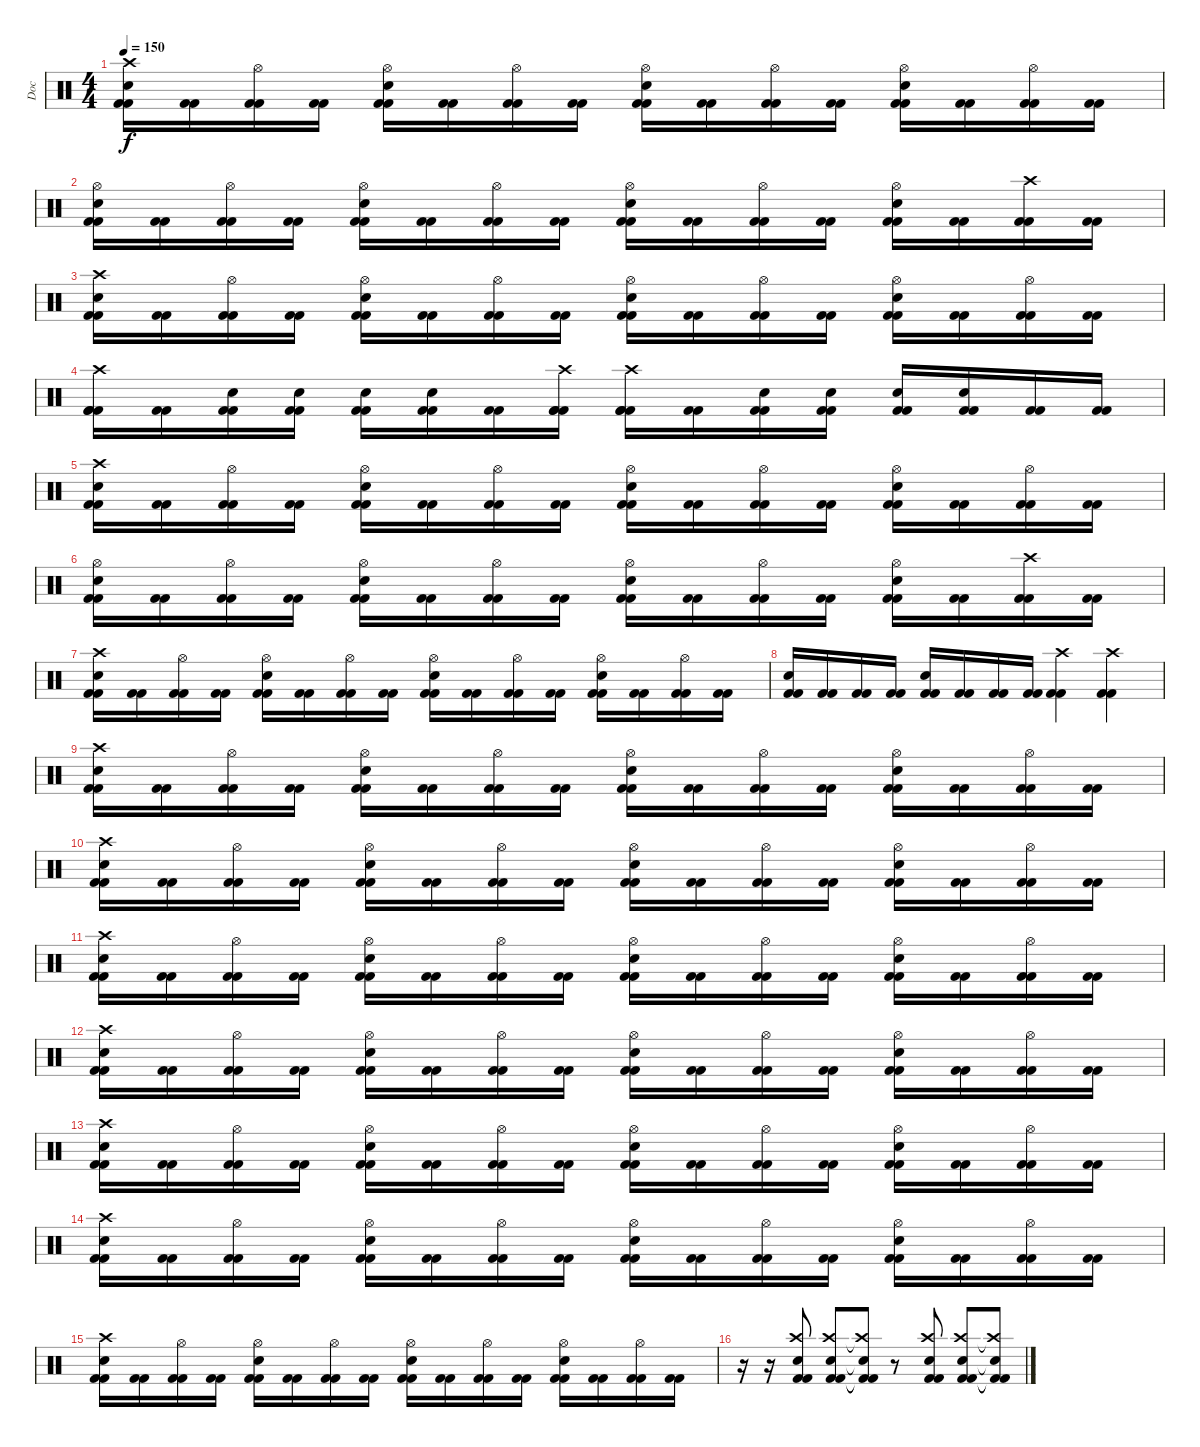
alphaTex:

\track ("Doc" "Doc") {instrument percussion}
\staff {score}
\articulation defaults
\ts (4 4)
\tempo 150
\clef neutral
\ks c
("Kick (hit) 2" "Crash high (hit)" "Electric Snare (hit)" "Kick (hit) 2").16{dy f} ("Kick (hit) 2" "Kick (hit) 2").16 ("Kick (hit) 2" "Hi-Hat (open)" "Kick (hit) 2").16 ("Kick (hit) 2" "Kick (hit) 2").16 ("Kick (hit) 2" "Hi-Hat (open)" "Electric Snare (hit)" "Kick (hit) 2").16 ("Kick (hit) 2" "Kick (hit) 2").16 ("Kick (hit) 2" "Hi-Hat (open)" "Kick (hit) 2").16 ("Kick (hit) 2" "Kick (hit) 2").16 ("Kick (hit) 2" "Hi-Hat (open)" "Electric Snare (hit)" "Kick (hit) 2").16 ("Kick (hit) 2" "Kick (hit) 2").16 ("Kick (hit) 2" "Hi-Hat (open)" "Kick (hit) 2").16 ("Kick (hit) 2" "Kick (hit) 2").16 ("Kick (hit) 2" "Hi-Hat (open)" "Electric Snare (hit)" "Kick (hit) 2").16 ("Kick (hit) 2" "Kick (hit) 2").16 ("Kick (hit) 2" "Hi-Hat (open)" "Kick (hit) 2").16 ("Kick (hit) 2" "Kick (hit) 2").16 |
("Kick (hit) 2" "Hi-Hat (open)" "Electric Snare (hit)" "Kick (hit) 2").16 ("Kick (hit) 2" "Kick (hit) 2").16 ("Kick (hit) 2" "Hi-Hat (open)" "Kick (hit) 2").16 ("Kick (hit) 2" "Kick (hit) 2").16 ("Kick (hit) 2" "Hi-Hat (open)" "Electric Snare (hit)" "Kick (hit) 2").16 ("Kick (hit) 2" "Kick (hit) 2").16 ("Kick (hit) 2" "Hi-Hat (open)" "Kick (hit) 2").16 ("Kick (hit) 2" "Kick (hit) 2").16 ("Kick (hit) 2" "Hi-Hat (open)" "Electric Snare (hit)" "Kick (hit) 2").16 ("Kick (hit) 2" "Kick (hit) 2").16 ("Kick (hit) 2" "Hi-Hat (open)" "Kick (hit) 2").16 ("Kick (hit) 2" "Kick (hit) 2").16 ("Kick (hit) 2" "Hi-Hat (open)" "Electric Snare (hit)" "Kick (hit) 2").16 ("Kick (hit) 2" "Kick (hit) 2").16 ("Kick (hit) 2" "Crash high (hit)" "Kick (hit) 2").16 ("Kick (hit) 2" "Kick (hit) 2").16 |
("Kick (hit) 2" "Crash high (hit)" "Electric Snare (hit)" "Kick (hit) 2").16 ("Kick (hit) 2" "Kick (hit) 2").16 ("Kick (hit) 2" "Hi-Hat (open)" "Kick (hit) 2").16 ("Kick (hit) 2" "Kick (hit) 2").16 ("Kick (hit) 2" "Hi-Hat (open)" "Electric Snare (hit)" "Kick (hit) 2").16 ("Kick (hit) 2" "Kick (hit) 2").16 ("Kick (hit) 2" "Hi-Hat (open)" "Kick (hit) 2").16 ("Kick (hit) 2" "Kick (hit) 2").16 ("Kick (hit) 2" "Hi-Hat (open)" "Electric Snare (hit)" "Kick (hit) 2").16 ("Kick (hit) 2" "Kick (hit) 2").16 ("Kick (hit) 2" "Hi-Hat (open)" "Kick (hit) 2").16 ("Kick (hit) 2" "Kick (hit) 2").16 ("Kick (hit) 2" "Hi-Hat (open)" "Electric Snare (hit)" "Kick (hit) 2").16 ("Kick (hit) 2" "Kick (hit) 2").16 ("Kick (hit) 2" "Hi-Hat (open)" "Kick (hit) 2").16 ("Kick (hit) 2" "Kick (hit) 2").16 |
("Kick (hit) 2" "Crash high (hit)" "Kick (hit) 2" "Kick (hit) 2").16 ("Kick (hit) 2" "Kick (hit) 2").16 ("Kick (hit) 2" "Electric Snare (hit)" "Kick (hit) 2").16 ("Kick (hit) 2" "Electric Snare (hit)" "Kick (hit) 2").16 ("Kick (hit) 2" "Electric Snare (hit)" "Kick (hit) 2").16 ("Kick (hit) 2" "Electric Snare (hit)" "Kick (hit) 2").16 ("Kick (hit) 2" "Kick (hit) 2").16 ("Kick (hit) 2" "Crash high (hit)" "Kick (hit) 2" "Kick (hit) 2").16 ("Kick (hit) 2" "Crash high (hit)" "Kick (hit) 2" "Kick (hit) 2").16 ("Kick (hit) 2" "Kick (hit) 2").16 ("Kick (hit) 2" "Electric Snare (hit)" "Kick (hit) 2").16 ("Kick (hit) 2" "Electric Snare (hit)" "Kick (hit) 2").16 ("Kick (hit) 2" "Electric Snare (hit)" "Kick (hit) 2").16 ("Kick (hit) 2" "Electric Snare (hit)" "Kick (hit) 2").16 ("Kick (hit) 2" "Kick (hit) 2").16 ("Kick (hit) 2" "Kick (hit) 2").16 |
("Kick (hit) 2" "Crash high (hit)" "Electric Snare (hit)" "Kick (hit) 2").16 ("Kick (hit) 2" "Kick (hit) 2").16 ("Kick (hit) 2" "Hi-Hat (open)" "Kick (hit) 2").16 ("Kick (hit) 2" "Kick (hit) 2").16 ("Kick (hit) 2" "Hi-Hat (open)" "Electric Snare (hit)" "Kick (hit) 2").16 ("Kick (hit) 2" "Kick (hit) 2").16 ("Kick (hit) 2" "Hi-Hat (open)" "Kick (hit) 2").16 ("Kick (hit) 2" "Kick (hit) 2").16 ("Kick (hit) 2" "Hi-Hat (open)" "Electric Snare (hit)" "Kick (hit) 2").16 ("Kick (hit) 2" "Kick (hit) 2").16 ("Kick (hit) 2" "Hi-Hat (open)" "Kick (hit) 2").16 ("Kick (hit) 2" "Kick (hit) 2").16 ("Kick (hit) 2" "Hi-Hat (open)" "Electric Snare (hit)" "Kick (hit) 2").16 ("Kick (hit) 2" "Kick (hit) 2").16 ("Kick (hit) 2" "Hi-Hat (open)" "Kick (hit) 2").16 ("Kick (hit) 2" "Kick (hit) 2").16 |
("Kick (hit) 2" "Hi-Hat (open)" "Electric Snare (hit)" "Kick (hit) 2").16 ("Kick (hit) 2" "Kick (hit) 2").16 ("Kick (hit) 2" "Hi-Hat (open)" "Kick (hit) 2").16 ("Kick (hit) 2" "Kick (hit) 2").16 ("Kick (hit) 2" "Hi-Hat (open)" "Electric Snare (hit)" "Kick (hit) 2").16 ("Kick (hit) 2" "Kick (hit) 2").16 ("Kick (hit) 2" "Hi-Hat (open)" "Kick (hit) 2").16 ("Kick (hit) 2" "Kick (hit) 2").16 ("Kick (hit) 2" "Hi-Hat (open)" "Electric Snare (hit)" "Kick (hit) 2").16 ("Kick (hit) 2" "Kick (hit) 2").16 ("Kick (hit) 2" "Hi-Hat (open)" "Kick (hit) 2").16 ("Kick (hit) 2" "Kick (hit) 2").16 ("Kick (hit) 2" "Hi-Hat (open)" "Electric Snare (hit)" "Kick (hit) 2").16 ("Kick (hit) 2" "Kick (hit) 2").16 ("Kick (hit) 2" "Crash high (hit)" "Kick (hit) 2").16 ("Kick (hit) 2" "Kick (hit) 2").16 |
("Kick (hit) 2" "Crash high (hit)" "Electric Snare (hit)" "Kick (hit) 2").16 ("Kick (hit) 2" "Kick (hit) 2").16 ("Kick (hit) 2" "Hi-Hat (open)" "Kick (hit) 2").16 ("Kick (hit) 2" "Kick (hit) 2").16 ("Kick (hit) 2" "Hi-Hat (open)" "Electric Snare (hit)" "Kick (hit) 2").16 ("Kick (hit) 2" "Kick (hit) 2").16 ("Kick (hit) 2" "Hi-Hat (open)" "Kick (hit) 2").16 ("Kick (hit) 2" "Kick (hit) 2").16 ("Kick (hit) 2" "Hi-Hat (open)" "Electric Snare (hit)" "Kick (hit) 2").16 ("Kick (hit) 2" "Kick (hit) 2").16 ("Kick (hit) 2" "Hi-Hat (open)" "Kick (hit) 2").16 ("Kick (hit) 2" "Kick (hit) 2").16 ("Kick (hit) 2" "Hi-Hat (open)" "Electric Snare (hit)" "Kick (hit) 2").16 ("Kick (hit) 2" "Kick (hit) 2").16 ("Kick (hit) 2" "Hi-Hat (open)" "Kick (hit) 2").16 ("Kick (hit) 2" "Kick (hit) 2").16 |
("Kick (hit) 2" "Electric Snare (hit)" "Kick (hit) 2").16 ("Kick (hit) 2" "Kick (hit) 2").16 ("Kick (hit) 2" "Kick (hit) 2").16 ("Kick (hit) 2" "Kick (hit) 2").16 ("Kick (hit) 2" "Electric Snare (hit)" "Kick (hit) 2").16 ("Kick (hit) 2" "Kick (hit) 2").16 ("Kick (hit) 2" "Kick (hit) 2").16 ("Kick (hit) 2" "Kick (hit) 2").16 ("Crash high (hit)" "Kick (hit) 2" "Kick (hit) 2").4 ("Crash high (hit)" "Kick (hit) 2" "Kick (hit) 2").4 |
("Kick (hit) 2" "Crash high (hit)" "Electric Snare (hit)" "Kick (hit) 2").16 ("Kick (hit) 2" "Kick (hit) 2").16 ("Kick (hit) 2" "Hi-Hat (open)" "Kick (hit) 2").16 ("Kick (hit) 2" "Kick (hit) 2").16 ("Kick (hit) 2" "Hi-Hat (open)" "Electric Snare (hit)" "Kick (hit) 2").16 ("Kick (hit) 2" "Kick (hit) 2").16 ("Kick (hit) 2" "Hi-Hat (open)" "Kick (hit) 2").16 ("Kick (hit) 2" "Kick (hit) 2").16 ("Kick (hit) 2" "Hi-Hat (open)" "Electric Snare (hit)" "Kick (hit) 2").16 ("Kick (hit) 2" "Kick (hit) 2").16 ("Kick (hit) 2" "Hi-Hat (open)" "Kick (hit) 2").16 ("Kick (hit) 2" "Kick (hit) 2").16 ("Kick (hit) 2" "Hi-Hat (open)" "Electric Snare (hit)" "Kick (hit) 2").16 ("Kick (hit) 2" "Kick (hit) 2").16 ("Kick (hit) 2" "Hi-Hat (open)" "Kick (hit) 2").16 ("Kick (hit) 2" "Kick (hit) 2").16 |
("Kick (hit) 2" "Crash high (hit)" "Electric Snare (hit)" "Kick (hit) 2").16 ("Kick (hit) 2" "Kick (hit) 2").16 ("Kick (hit) 2" "Hi-Hat (open)" "Kick (hit) 2").16 ("Kick (hit) 2" "Kick (hit) 2").16 ("Kick (hit) 2" "Hi-Hat (open)" "Electric Snare (hit)" "Kick (hit) 2").16 ("Kick (hit) 2" "Kick (hit) 2").16 ("Kick (hit) 2" "Hi-Hat (open)" "Kick (hit) 2").16 ("Kick (hit) 2" "Kick (hit) 2").16 ("Kick (hit) 2" "Hi-Hat (open)" "Electric Snare (hit)" "Kick (hit) 2").16 ("Kick (hit) 2" "Kick (hit) 2").16 ("Kick (hit) 2" "Hi-Hat (open)" "Kick (hit) 2").16 ("Kick (hit) 2" "Kick (hit) 2").16 ("Kick (hit) 2" "Hi-Hat (open)" "Electric Snare (hit)" "Kick (hit) 2").16 ("Kick (hit) 2" "Kick (hit) 2").16 ("Kick (hit) 2" "Hi-Hat (open)" "Kick (hit) 2").16 ("Kick (hit) 2" "Kick (hit) 2").16 |
("Kick (hit) 2" "Crash high (hit)" "Electric Snare (hit)" "Kick (hit) 2").16 ("Kick (hit) 2" "Kick (hit) 2").16 ("Kick (hit) 2" "Hi-Hat (open)" "Kick (hit) 2").16 ("Kick (hit) 2" "Kick (hit) 2").16 ("Kick (hit) 2" "Hi-Hat (open)" "Electric Snare (hit)" "Kick (hit) 2").16 ("Kick (hit) 2" "Kick (hit) 2").16 ("Kick (hit) 2" "Hi-Hat (open)" "Kick (hit) 2").16 ("Kick (hit) 2" "Kick (hit) 2").16 ("Kick (hit) 2" "Hi-Hat (open)" "Electric Snare (hit)" "Kick (hit) 2").16 ("Kick (hit) 2" "Kick (hit) 2").16 ("Kick (hit) 2" "Hi-Hat (open)" "Kick (hit) 2").16 ("Kick (hit) 2" "Kick (hit) 2").16 ("Kick (hit) 2" "Hi-Hat (open)" "Electric Snare (hit)" "Kick (hit) 2").16 ("Kick (hit) 2" "Kick (hit) 2").16 ("Kick (hit) 2" "Hi-Hat (open)" "Kick (hit) 2").16 ("Kick (hit) 2" "Kick (hit) 2").16 |
("Kick (hit) 2" "Crash high (hit)" "Electric Snare (hit)" "Kick (hit) 2").16 ("Kick (hit) 2" "Kick (hit) 2").16 ("Kick (hit) 2" "Hi-Hat (open)" "Kick (hit) 2").16 ("Kick (hit) 2" "Kick (hit) 2").16 ("Kick (hit) 2" "Hi-Hat (open)" "Electric Snare (hit)" "Kick (hit) 2").16 ("Kick (hit) 2" "Kick (hit) 2").16 ("Kick (hit) 2" "Hi-Hat (open)" "Kick (hit) 2").16 ("Kick (hit) 2" "Kick (hit) 2").16 ("Kick (hit) 2" "Hi-Hat (open)" "Electric Snare (hit)" "Kick (hit) 2").16 ("Kick (hit) 2" "Kick (hit) 2").16 ("Kick (hit) 2" "Hi-Hat (open)" "Kick (hit) 2").16 ("Kick (hit) 2" "Kick (hit) 2").16 ("Kick (hit) 2" "Hi-Hat (open)" "Electric Snare (hit)" "Kick (hit) 2").16 ("Kick (hit) 2" "Kick (hit) 2").16 ("Kick (hit) 2" "Hi-Hat (open)" "Kick (hit) 2").16 ("Kick (hit) 2" "Kick (hit) 2").16 |
("Kick (hit) 2" "Crash high (hit)" "Electric Snare (hit)" "Kick (hit) 2").16 ("Kick (hit) 2" "Kick (hit) 2").16 ("Kick (hit) 2" "Hi-Hat (open)" "Kick (hit) 2").16 ("Kick (hit) 2" "Kick (hit) 2").16 ("Kick (hit) 2" "Hi-Hat (open)" "Electric Snare (hit)" "Kick (hit) 2").16 ("Kick (hit) 2" "Kick (hit) 2").16 ("Kick (hit) 2" "Hi-Hat (open)" "Kick (hit) 2").16 ("Kick (hit) 2" "Kick (hit) 2").16 ("Kick (hit) 2" "Hi-Hat (open)" "Electric Snare (hit)" "Kick (hit) 2").16 ("Kick (hit) 2" "Kick (hit) 2").16 ("Kick (hit) 2" "Hi-Hat (open)" "Kick (hit) 2").16 ("Kick (hit) 2" "Kick (hit) 2").16 ("Kick (hit) 2" "Hi-Hat (open)" "Electric Snare (hit)" "Kick (hit) 2").16 ("Kick (hit) 2" "Kick (hit) 2").16 ("Kick (hit) 2" "Hi-Hat (open)" "Kick (hit) 2").16 ("Kick (hit) 2" "Kick (hit) 2").16 |
("Kick (hit) 2" "Crash high (hit)" "Electric Snare (hit)" "Kick (hit) 2").16 ("Kick (hit) 2" "Kick (hit) 2").16 ("Kick (hit) 2" "Hi-Hat (open)" "Kick (hit) 2").16 ("Kick (hit) 2" "Kick (hit) 2").16 ("Kick (hit) 2" "Hi-Hat (open)" "Electric Snare (hit)" "Kick (hit) 2").16 ("Kick (hit) 2" "Kick (hit) 2").16 ("Kick (hit) 2" "Hi-Hat (open)" "Kick (hit) 2").16 ("Kick (hit) 2" "Kick (hit) 2").16 ("Kick (hit) 2" "Hi-Hat (open)" "Electric Snare (hit)" "Kick (hit) 2").16 ("Kick (hit) 2" "Kick (hit) 2").16 ("Kick (hit) 2" "Hi-Hat (open)" "Kick (hit) 2").16 ("Kick (hit) 2" "Kick (hit) 2").16 ("Kick (hit) 2" "Hi-Hat (open)" "Electric Snare (hit)" "Kick (hit) 2").16 ("Kick (hit) 2" "Kick (hit) 2").16 ("Kick (hit) 2" "Hi-Hat (open)" "Kick (hit) 2").16 ("Kick (hit) 2" "Kick (hit) 2").16 |
("Kick (hit) 2" "Crash high (hit)" "Electric Snare (hit)" "Kick (hit) 2").16 ("Kick (hit) 2" "Kick (hit) 2").16 ("Kick (hit) 2" "Hi-Hat (open)" "Kick (hit) 2").16 ("Kick (hit) 2" "Kick (hit) 2").16 ("Kick (hit) 2" "Hi-Hat (open)" "Electric Snare (hit)" "Kick (hit) 2").16 ("Kick (hit) 2" "Kick (hit) 2").16 ("Kick (hit) 2" "Hi-Hat (open)" "Kick (hit) 2").16 ("Kick (hit) 2" "Kick (hit) 2").16 ("Kick (hit) 2" "Hi-Hat (open)" "Electric Snare (hit)" "Kick (hit) 2").16 ("Kick (hit) 2" "Kick (hit) 2").16 ("Kick (hit) 2" "Hi-Hat (open)" "Kick (hit) 2").16 ("Kick (hit) 2" "Kick (hit) 2").16 ("Kick (hit) 2" "Hi-Hat (open)" "Electric Snare (hit)" "Kick (hit) 2").16 ("Kick (hit) 2" "Kick (hit) 2").16 ("Kick (hit) 2" "Hi-Hat (open)" "Kick (hit) 2").16 ("Kick (hit) 2" "Kick (hit) 2").16 |
r.16 r.16 ("Crash high (hit)" "Electric Snare (hit)" "Kick (hit) 2" "Kick (hit) 2").8 ("Crash high (hit)" "Electric Snare (hit)" "Kick (hit) 2" "Kick (hit) 2").8 ("Crash high (hit)"{t} "Electric Snare (hit)"{t} "Kick (hit) 2"{t} "Kick (hit) 2"{t}).8 r.8 ("Crash high (hit)" "Electric Snare (hit)" "Kick (hit) 2" "Kick (hit) 2").8 ("Crash high (hit)" "Electric Snare (hit)" "Kick (hit) 2" "Kick (hit) 2").8 ("Crash high (hit)"{t} "Electric Snare (hit)"{t} "Kick (hit) 2"{t} "Kick (hit) 2"{t}).8
